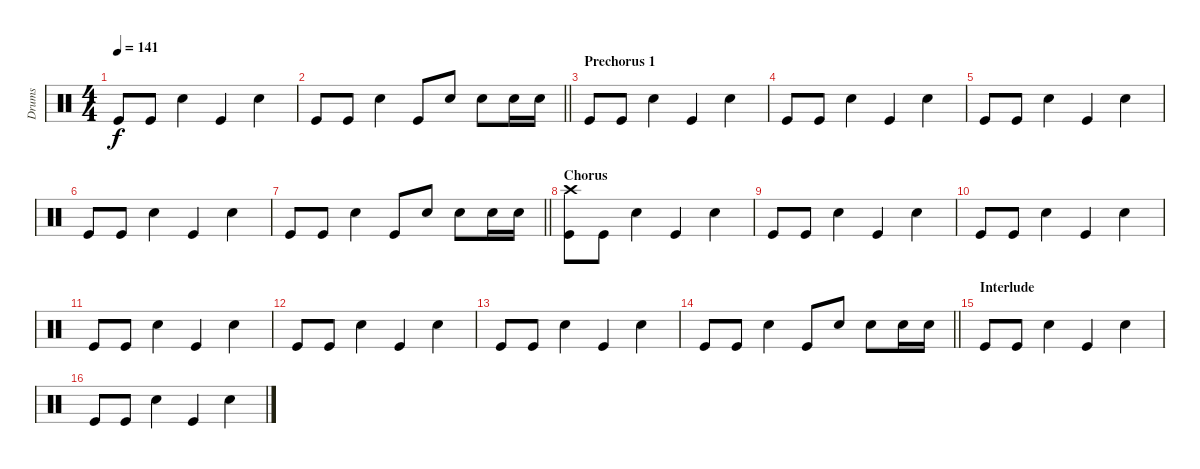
\track ("Drums" "Drums") {instrument percussion}
\staff {score}
\articulation defaults
\ts (4 4)
\tempo 141
\clef neutral
\ks c "Kick (hit)".8{dy f} "Kick (hit)".8 "Snare (hit) 2".4 "Kick (hit)".4 "Snare (hit) 2".4
|
\barLineRight lightlight "Kick (hit)".8 "Kick (hit)".8 "Snare (hit) 2".4 "Kick (hit)".8 "Snare (hit) 2".8 "Snare (hit) 2".8 "Snare (hit) 2".16 "Snare (hit) 2".16
|
\section ("" "Prechorus 1")
"Kick (hit)".8 "Kick (hit)".8 "Snare (hit) 2".4 "Kick (hit)".4 "Snare (hit) 2".4 |
"Kick (hit)".8 "Kick (hit)".8 "Snare (hit) 2".4 "Kick (hit)".4 "Snare (hit) 2".4 |
"Kick (hit)".8 "Kick (hit)".8 "Snare (hit) 2".4 "Kick (hit)".4 "Snare (hit) 2".4 |
"Kick (hit)".8 "Kick (hit)".8 "Snare (hit) 2".4 "Kick (hit)".4 "Snare (hit) 2".4 |
\barLineRight lightlight "Kick (hit)".8 "Kick (hit)".8 "Snare (hit) 2".4 "Kick (hit)".8 "Snare (hit) 2".8 "Snare (hit) 2".8 "Snare (hit) 2".16 "Snare (hit) 2".16
|
\section ("" "Chorus")
("Crash high (hit)" "Kick (hit)").8 "Kick (hit)".8 "Snare (hit) 2".4 "Kick (hit)".4 "Snare (hit) 2".4 |
"Kick (hit)".8 "Kick (hit)".8 "Snare (hit) 2".4 "Kick (hit)".4 "Snare (hit) 2".4 |
"Kick (hit)".8 "Kick (hit)".8 "Snare (hit) 2".4 "Kick (hit)".4 "Snare (hit) 2".4 |
"Kick (hit)".8 "Kick (hit)".8 "Snare (hit) 2".4 "Kick (hit)".4 "Snare (hit) 2".4 |
"Kick (hit)".8 "Kick (hit)".8 "Snare (hit) 2".4 "Kick (hit)".4 "Snare (hit) 2".4 |
"Kick (hit)".8 "Kick (hit)".8 "Snare (hit) 2".4 "Kick (hit)".4 "Snare (hit) 2".4 |
\barLineRight lightlight "Kick (hit)".8 "Kick (hit)".8 "Snare (hit) 2".4 "Kick (hit)".8 "Snare (hit) 2".8 "Snare (hit) 2".8 "Snare (hit) 2".16 "Snare (hit) 2".16
|
\section ("" "Interlude")
"Kick (hit)".8 "Kick (hit)".8 "Snare (hit) 2".4 "Kick (hit)".4 "Snare (hit) 2".4 |
"Kick (hit)".8 "Kick (hit)".8 "Snare (hit) 2".4 "Kick (hit)".4 "Snare (hit) 2".4
